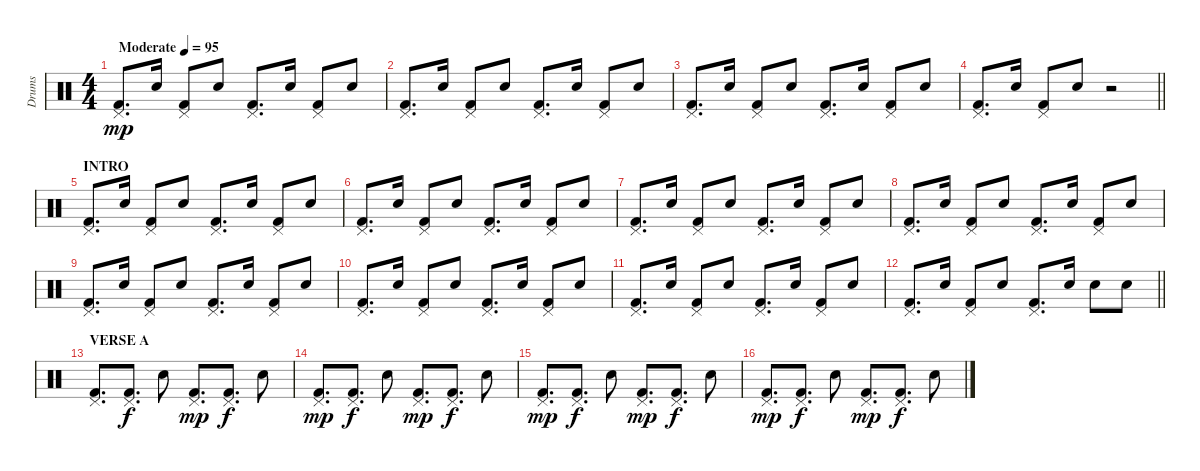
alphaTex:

\track ("Drums" "Drums") {instrument percussion}
\staff {score}
\articulation defaults
\ts (4 4)
\tempo (95 "Moderate")
\clef neutral
\ks c
("Pedal Hi-Hat (hit)" "Kick (hit) 2").8{d dy mp} "Snare (hit) 2".16 ("Pedal Hi-Hat (hit)" "Kick (hit) 2").8 "Snare (hit) 2".8 ("Pedal Hi-Hat (hit)" "Kick (hit) 2").8{d} "Snare (hit) 2".16 ("Pedal Hi-Hat (hit)" "Kick (hit) 2").8 "Snare (hit) 2".8 |
("Pedal Hi-Hat (hit)" "Kick (hit) 2").8{d} "Snare (hit) 2".16 ("Pedal Hi-Hat (hit)" "Kick (hit) 2").8 "Snare (hit) 2".8 ("Pedal Hi-Hat (hit)" "Kick (hit) 2").8{d} "Snare (hit) 2".16 ("Pedal Hi-Hat (hit)" "Kick (hit) 2").8 "Snare (hit) 2".8 |
("Pedal Hi-Hat (hit)" "Kick (hit) 2").8{d} "Snare (hit) 2".16 ("Pedal Hi-Hat (hit)" "Kick (hit) 2").8 "Snare (hit) 2".8 ("Pedal Hi-Hat (hit)" "Kick (hit) 2").8{d} "Snare (hit) 2".16 ("Pedal Hi-Hat (hit)" "Kick (hit) 2").8 "Snare (hit) 2".8 |
\barLineRight lightlight
("Pedal Hi-Hat (hit)" "Kick (hit) 2").8{d} "Snare (hit) 2".16 ("Pedal Hi-Hat (hit)" "Kick (hit) 2").8 "Snare (hit) 2".8 r.2 |
\section ("" "INTRO")
("Pedal Hi-Hat (hit)" "Kick (hit) 2").8{d} "Snare (hit) 2".16 ("Pedal Hi-Hat (hit)" "Kick (hit) 2").8 "Snare (hit) 2".8 ("Pedal Hi-Hat (hit)" "Kick (hit) 2").8{d} "Snare (hit) 2".16 ("Pedal Hi-Hat (hit)" "Kick (hit) 2").8 "Snare (hit) 2".8 |
("Pedal Hi-Hat (hit)" "Kick (hit) 2").8{d} "Snare (hit) 2".16 ("Pedal Hi-Hat (hit)" "Kick (hit) 2").8 "Snare (hit) 2".8 ("Pedal Hi-Hat (hit)" "Kick (hit) 2").8{d} "Snare (hit) 2".16 ("Pedal Hi-Hat (hit)" "Kick (hit) 2").8 "Snare (hit) 2".8 |
("Pedal Hi-Hat (hit)" "Kick (hit) 2").8{d} "Snare (hit) 2".16 ("Pedal Hi-Hat (hit)" "Kick (hit) 2").8 "Snare (hit) 2".8 ("Pedal Hi-Hat (hit)" "Kick (hit) 2").8{d} "Snare (hit) 2".16 ("Pedal Hi-Hat (hit)" "Kick (hit) 2").8 "Snare (hit) 2".8 |
("Pedal Hi-Hat (hit)" "Kick (hit) 2").8{d} "Snare (hit) 2".16 ("Pedal Hi-Hat (hit)" "Kick (hit) 2").8 "Snare (hit) 2".8 ("Pedal Hi-Hat (hit)" "Kick (hit) 2").8{d} "Snare (hit) 2".16 ("Pedal Hi-Hat (hit)" "Kick (hit) 2").8 "Snare (hit) 2".8 |
("Pedal Hi-Hat (hit)" "Kick (hit) 2").8{d} "Snare (hit) 2".16 ("Pedal Hi-Hat (hit)" "Kick (hit) 2").8 "Snare (hit) 2".8 ("Pedal Hi-Hat (hit)" "Kick (hit) 2").8{d} "Snare (hit) 2".16 ("Pedal Hi-Hat (hit)" "Kick (hit) 2").8 "Snare (hit) 2".8 |
("Pedal Hi-Hat (hit)" "Kick (hit) 2").8{d} "Snare (hit) 2".16 ("Pedal Hi-Hat (hit)" "Kick (hit) 2").8 "Snare (hit) 2".8 ("Pedal Hi-Hat (hit)" "Kick (hit) 2").8{d} "Snare (hit) 2".16 ("Pedal Hi-Hat (hit)" "Kick (hit) 2").8 "Snare (hit) 2".8 |
("Pedal Hi-Hat (hit)" "Kick (hit) 2").8{d} "Snare (hit) 2".16 ("Pedal Hi-Hat (hit)" "Kick (hit) 2").8 "Snare (hit) 2".8 ("Pedal Hi-Hat (hit)" "Kick (hit) 2").8{d} "Snare (hit) 2".16 ("Pedal Hi-Hat (hit)" "Kick (hit) 2").8 "Snare (hit) 2".8 |
\barLineRight lightlight
("Pedal Hi-Hat (hit)" "Kick (hit) 2").8{d} "Snare (hit) 2".16 ("Pedal Hi-Hat (hit)" "Kick (hit) 2").8 "Snare (hit) 2".8 ("Pedal Hi-Hat (hit)" "Kick (hit) 2").8{d} "Snare (hit) 2".16 "Snare (hit) 2".8 "Snare (hit) 2".8 |
\section ("" "VERSE A")
("Pedal Hi-Hat (hit)" "Kick (hit) 2").8{d} ("Pedal Hi-Hat (hit)" "Kick (hit) 2").8{d dy f} "Snare (hit) 2".8 ("Pedal Hi-Hat (hit)" "Kick (hit) 2").8{d dy mp} ("Pedal Hi-Hat (hit)" "Kick (hit) 2").8{d dy f} "Snare (hit) 2".8 |
("Pedal Hi-Hat (hit)" "Kick (hit) 2").8{d dy mp} ("Pedal Hi-Hat (hit)" "Kick (hit) 2").8{d dy f} "Snare (hit) 2".8 ("Pedal Hi-Hat (hit)" "Kick (hit) 2").8{d dy mp} ("Pedal Hi-Hat (hit)" "Kick (hit) 2").8{d dy f} "Snare (hit) 2".8 |
("Pedal Hi-Hat (hit)" "Kick (hit) 2").8{d dy mp} ("Pedal Hi-Hat (hit)" "Kick (hit) 2").8{d dy f} "Snare (hit) 2".8 ("Pedal Hi-Hat (hit)" "Kick (hit) 2").8{d dy mp} ("Pedal Hi-Hat (hit)" "Kick (hit) 2").8{d dy f} "Snare (hit) 2".8 |
("Pedal Hi-Hat (hit)" "Kick (hit) 2").8{d dy mp} ("Pedal Hi-Hat (hit)" "Kick (hit) 2").8{d dy f} "Snare (hit) 2".8 ("Pedal Hi-Hat (hit)" "Kick (hit) 2").8{d dy mp} ("Pedal Hi-Hat (hit)" "Kick (hit) 2").8{d dy f} "Snare (hit) 2".8
